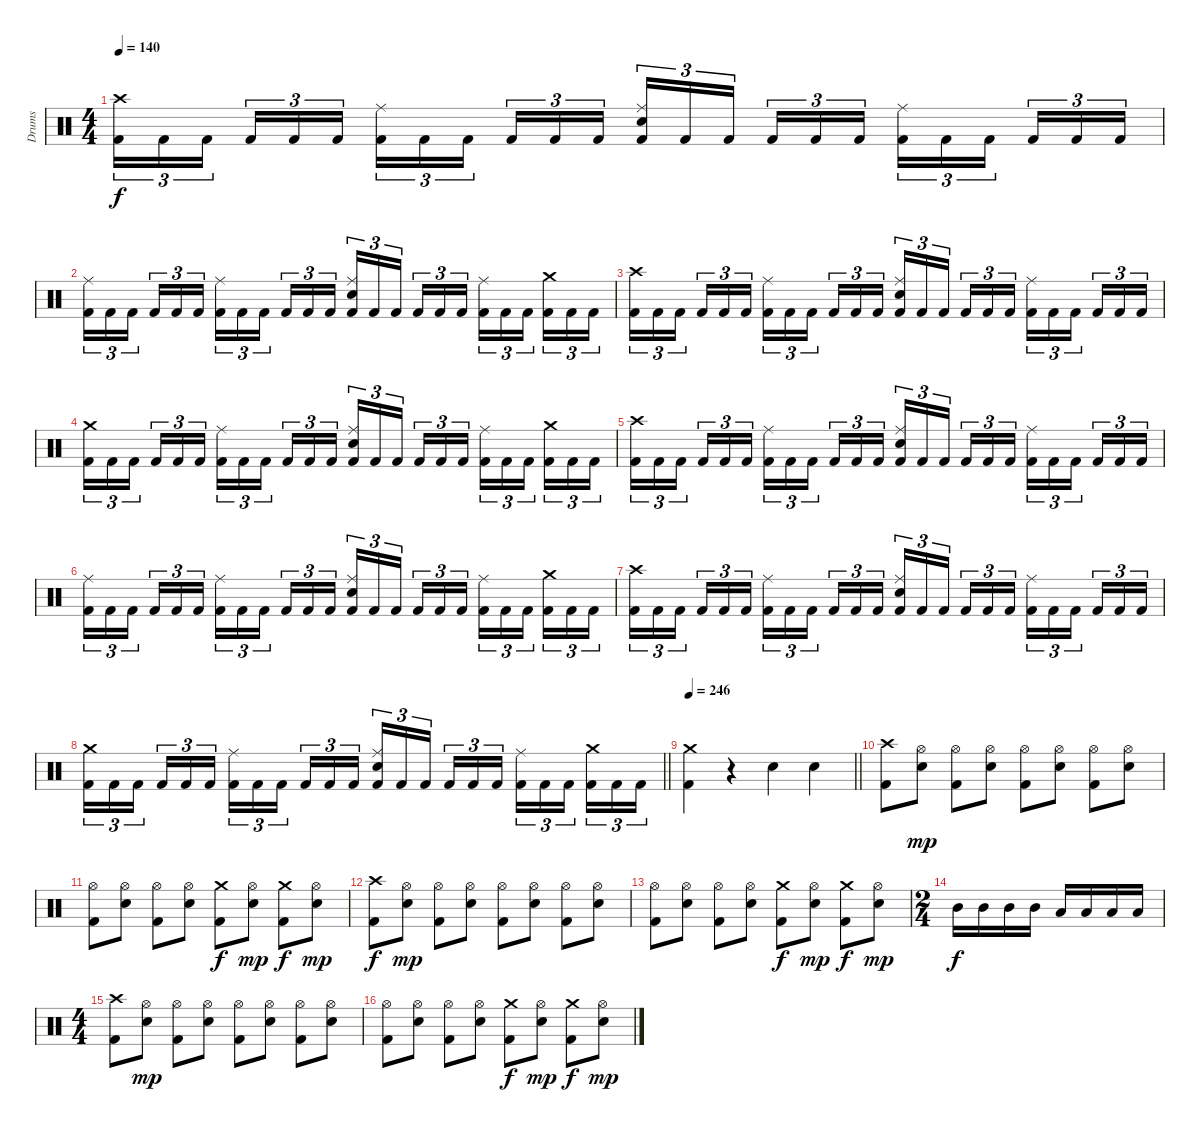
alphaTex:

\track ("Drums" "Drums") {instrument percussion}
\staff {score}
\articulation defaults
\ts (4 4)
\tempo 140
\clef neutral
\ks c
("Crash high (hit)" "Kick (hit) 2").16{tu (3 2) dy f} "Kick (hit) 2".16{tu (3 2)} "Kick (hit) 2".16{tu (3 2) beam splitsecondary} "Kick (hit) 2".16{tu (3 2)} "Kick (hit) 2".16{tu (3 2)} "Kick (hit) 2".16{tu (3 2)} ("Ride (middle)" "Kick (hit) 2").16{tu (3 2)} "Kick (hit) 2".16{tu (3 2)} "Kick (hit) 2".16{tu (3 2) beam splitsecondary} "Kick (hit) 2".16{tu (3 2)} "Kick (hit) 2".16{tu (3 2)} "Kick (hit) 2".16{tu (3 2)} ("Ride (middle)" "Snare (hit) 2" "Kick (hit) 2").16{tu (3 2)} "Kick (hit) 2".16{tu (3 2)} "Kick (hit) 2".16{tu (3 2) beam splitsecondary} "Kick (hit) 2".16{tu (3 2)} "Kick (hit) 2".16{tu (3 2)} "Kick (hit) 2".16{tu (3 2)} ("Ride (middle)" "Kick (hit) 2").16{tu (3 2)} "Kick (hit) 2".16{tu (3 2)} "Kick (hit) 2".16{tu (3 2) beam splitsecondary} "Kick (hit) 2".16{tu (3 2)} "Kick (hit) 2".16{tu (3 2)} "Kick (hit) 2".16{tu (3 2)} |
("Ride (middle)" "Kick (hit) 2").16{tu (3 2)} "Kick (hit) 2".16{tu (3 2)} "Kick (hit) 2".16{tu (3 2) beam splitsecondary} "Kick (hit) 2".16{tu (3 2)} "Kick (hit) 2".16{tu (3 2)} "Kick (hit) 2".16{tu (3 2)} ("Ride (middle)" "Kick (hit) 2").16{tu (3 2)} "Kick (hit) 2".16{tu (3 2)} "Kick (hit) 2".16{tu (3 2) beam splitsecondary} "Kick (hit) 2".16{tu (3 2)} "Kick (hit) 2".16{tu (3 2)} "Kick (hit) 2".16{tu (3 2)} ("Ride (middle)" "Snare (hit) 2" "Kick (hit) 2").16{tu (3 2)} "Kick (hit) 2".16{tu (3 2)} "Kick (hit) 2".16{tu (3 2) beam splitsecondary} "Kick (hit) 2".16{tu (3 2)} "Kick (hit) 2".16{tu (3 2)} "Kick (hit) 2".16{tu (3 2)} ("Ride (middle)" "Kick (hit) 2").16{tu (3 2)} "Kick (hit) 2".16{tu (3 2)} "Kick (hit) 2".16{tu (3 2) beam splitsecondary} ("Crash medium (hit)" "Kick (hit) 2").16{tu (3 2)} "Kick (hit) 2".16{tu (3 2)} "Kick (hit) 2".16{tu (3 2)} |
("Crash high (hit)" "Kick (hit) 2").16{tu (3 2)} "Kick (hit) 2".16{tu (3 2)} "Kick (hit) 2".16{tu (3 2) beam splitsecondary} "Kick (hit) 2".16{tu (3 2)} "Kick (hit) 2".16{tu (3 2)} "Kick (hit) 2".16{tu (3 2)} ("Ride (middle)" "Kick (hit) 2").16{tu (3 2)} "Kick (hit) 2".16{tu (3 2)} "Kick (hit) 2".16{tu (3 2) beam splitsecondary} "Kick (hit) 2".16{tu (3 2)} "Kick (hit) 2".16{tu (3 2)} "Kick (hit) 2".16{tu (3 2)} ("Ride (middle)" "Snare (hit) 2" "Kick (hit) 2").16{tu (3 2)} "Kick (hit) 2".16{tu (3 2)} "Kick (hit) 2".16{tu (3 2) beam splitsecondary} "Kick (hit) 2".16{tu (3 2)} "Kick (hit) 2".16{tu (3 2)} "Kick (hit) 2".16{tu (3 2)} ("Ride (middle)" "Kick (hit) 2").16{tu (3 2)} "Kick (hit) 2".16{tu (3 2)} "Kick (hit) 2".16{tu (3 2) beam splitsecondary} "Kick (hit) 2".16{tu (3 2)} "Kick (hit) 2".16{tu (3 2)} "Kick (hit) 2".16{tu (3 2)} |
("Crash medium (hit)" "Kick (hit) 2").16{tu (3 2)} "Kick (hit) 2".16{tu (3 2)} "Kick (hit) 2".16{tu (3 2) beam splitsecondary} "Kick (hit) 2".16{tu (3 2)} "Kick (hit) 2".16{tu (3 2)} "Kick (hit) 2".16{tu (3 2)} ("Ride (middle)" "Kick (hit) 2").16{tu (3 2)} "Kick (hit) 2".16{tu (3 2)} "Kick (hit) 2".16{tu (3 2) beam splitsecondary} "Kick (hit) 2".16{tu (3 2)} "Kick (hit) 2".16{tu (3 2)} "Kick (hit) 2".16{tu (3 2)} ("Ride (middle)" "Snare (hit) 2" "Kick (hit) 2").16{tu (3 2)} "Kick (hit) 2".16{tu (3 2)} "Kick (hit) 2".16{tu (3 2) beam splitsecondary} "Kick (hit) 2".16{tu (3 2)} "Kick (hit) 2".16{tu (3 2)} "Kick (hit) 2".16{tu (3 2)} ("Ride (middle)" "Kick (hit) 2").16{tu (3 2)} "Kick (hit) 2".16{tu (3 2)} "Kick (hit) 2".16{tu (3 2) beam splitsecondary} ("Crash medium (hit)" "Kick (hit) 2").16{tu (3 2)} "Kick (hit) 2".16{tu (3 2)} "Kick (hit) 2".16{tu (3 2)} |
("Crash high (hit)" "Kick (hit) 2").16{tu (3 2)} "Kick (hit) 2".16{tu (3 2)} "Kick (hit) 2".16{tu (3 2) beam splitsecondary} "Kick (hit) 2".16{tu (3 2)} "Kick (hit) 2".16{tu (3 2)} "Kick (hit) 2".16{tu (3 2)} ("Ride (middle)" "Kick (hit) 2").16{tu (3 2)} "Kick (hit) 2".16{tu (3 2)} "Kick (hit) 2".16{tu (3 2) beam splitsecondary} "Kick (hit) 2".16{tu (3 2)} "Kick (hit) 2".16{tu (3 2)} "Kick (hit) 2".16{tu (3 2)} ("Ride (middle)" "Snare (hit) 2" "Kick (hit) 2").16{tu (3 2)} "Kick (hit) 2".16{tu (3 2)} "Kick (hit) 2".16{tu (3 2) beam splitsecondary} "Kick (hit) 2".16{tu (3 2)} "Kick (hit) 2".16{tu (3 2)} "Kick (hit) 2".16{tu (3 2)} ("Ride (middle)" "Kick (hit) 2").16{tu (3 2)} "Kick (hit) 2".16{tu (3 2)} "Kick (hit) 2".16{tu (3 2) beam splitsecondary} "Kick (hit) 2".16{tu (3 2)} "Kick (hit) 2".16{tu (3 2)} "Kick (hit) 2".16{tu (3 2)} |
("Ride (middle)" "Kick (hit) 2").16{tu (3 2)} "Kick (hit) 2".16{tu (3 2)} "Kick (hit) 2".16{tu (3 2) beam splitsecondary} "Kick (hit) 2".16{tu (3 2)} "Kick (hit) 2".16{tu (3 2)} "Kick (hit) 2".16{tu (3 2)} ("Ride (middle)" "Kick (hit) 2").16{tu (3 2)} "Kick (hit) 2".16{tu (3 2)} "Kick (hit) 2".16{tu (3 2) beam splitsecondary} "Kick (hit) 2".16{tu (3 2)} "Kick (hit) 2".16{tu (3 2)} "Kick (hit) 2".16{tu (3 2)} ("Ride (middle)" "Snare (hit) 2" "Kick (hit) 2").16{tu (3 2)} "Kick (hit) 2".16{tu (3 2)} "Kick (hit) 2".16{tu (3 2) beam splitsecondary} "Kick (hit) 2".16{tu (3 2)} "Kick (hit) 2".16{tu (3 2)} "Kick (hit) 2".16{tu (3 2)} ("Ride (middle)" "Kick (hit) 2").16{tu (3 2)} "Kick (hit) 2".16{tu (3 2)} "Kick (hit) 2".16{tu (3 2) beam splitsecondary} ("Crash medium (hit)" "Kick (hit) 2").16{tu (3 2)} "Kick (hit) 2".16{tu (3 2)} "Kick (hit) 2".16{tu (3 2)} |
("Crash high (hit)" "Kick (hit) 2").16{tu (3 2)} "Kick (hit) 2".16{tu (3 2)} "Kick (hit) 2".16{tu (3 2) beam splitsecondary} "Kick (hit) 2".16{tu (3 2)} "Kick (hit) 2".16{tu (3 2)} "Kick (hit) 2".16{tu (3 2)} ("Ride (middle)" "Kick (hit) 2").16{tu (3 2)} "Kick (hit) 2".16{tu (3 2)} "Kick (hit) 2".16{tu (3 2) beam splitsecondary} "Kick (hit) 2".16{tu (3 2)} "Kick (hit) 2".16{tu (3 2)} "Kick (hit) 2".16{tu (3 2)} ("Ride (middle)" "Snare (hit) 2" "Kick (hit) 2").16{tu (3 2)} "Kick (hit) 2".16{tu (3 2)} "Kick (hit) 2".16{tu (3 2) beam splitsecondary} "Kick (hit) 2".16{tu (3 2)} "Kick (hit) 2".16{tu (3 2)} "Kick (hit) 2".16{tu (3 2)} ("Ride (middle)" "Kick (hit) 2").16{tu (3 2)} "Kick (hit) 2".16{tu (3 2)} "Kick (hit) 2".16{tu (3 2) beam splitsecondary} "Kick (hit) 2".16{tu (3 2)} "Kick (hit) 2".16{tu (3 2)} "Kick (hit) 2".16{tu (3 2)} |
\barLineRight lightlight
("Crash medium (hit)" "Kick (hit) 2").16{tu (3 2)} "Kick (hit) 2".16{tu (3 2)} "Kick (hit) 2".16{tu (3 2) beam splitsecondary} "Kick (hit) 2".16{tu (3 2)} "Kick (hit) 2".16{tu (3 2)} "Kick (hit) 2".16{tu (3 2)} ("Ride (middle)" "Kick (hit) 2").16{tu (3 2)} "Kick (hit) 2".16{tu (3 2)} "Kick (hit) 2".16{tu (3 2) beam splitsecondary} "Kick (hit) 2".16{tu (3 2)} "Kick (hit) 2".16{tu (3 2)} "Kick (hit) 2".16{tu (3 2)} ("Ride (middle)" "Snare (hit) 2" "Kick (hit) 2").16{tu (3 2)} "Kick (hit) 2".16{tu (3 2)} "Kick (hit) 2".16{tu (3 2) beam splitsecondary} "Kick (hit) 2".16{tu (3 2)} "Kick (hit) 2".16{tu (3 2)} "Kick (hit) 2".16{tu (3 2)} ("Ride (middle)" "Kick (hit) 2").16{tu (3 2)} "Kick (hit) 2".16{tu (3 2)} "Kick (hit) 2".16{tu (3 2) beam splitsecondary} ("Crash medium (hit)" "Kick (hit) 2").16{tu (3 2)} "Kick (hit) 2".16{tu (3 2)} "Kick (hit) 2".16{tu (3 2)} |
\section ("" "")
\tempo 246
\barLineRight lightlight
("Crash medium (hit)" "Kick (hit) 2").4 r.4 "Snare (hit) 2".4 "Snare (hit) 2".4 |
\section ("" "")
("Crash high (hit)" "Kick (hit) 2").8 ("Hi-Hat (open)" "Snare (hit) 2").8{dy mp} ("Hi-Hat (open)" "Kick (hit) 2").8 ("Hi-Hat (open)" "Snare (hit) 2").8 ("Hi-Hat (open)" "Kick (hit) 2").8 ("Hi-Hat (open)" "Snare (hit) 2").8 ("Hi-Hat (open)" "Kick (hit) 2").8 ("Hi-Hat (open)" "Snare (hit) 2").8 |
("Hi-Hat (open)" "Kick (hit) 2").8 ("Hi-Hat (open)" "Snare (hit) 2").8 ("Hi-Hat (open)" "Kick (hit) 2").8 ("Hi-Hat (open)" "Snare (hit) 2").8 ("Crash medium (hit)" "Kick (hit) 2").8{dy f} ("Hi-Hat (open)" "Snare (hit) 2").8{dy mp} ("Crash medium (hit)" "Kick (hit) 2").8{dy f} ("Hi-Hat (open)" "Snare (hit) 2").8{dy mp} |
("Crash high (hit)" "Kick (hit) 2").8{dy f} ("Hi-Hat (open)" "Snare (hit) 2").8{dy mp} ("Hi-Hat (open)" "Kick (hit) 2").8 ("Hi-Hat (open)" "Snare (hit) 2").8 ("Hi-Hat (open)" "Kick (hit) 2").8 ("Hi-Hat (open)" "Snare (hit) 2").8 ("Hi-Hat (open)" "Kick (hit) 2").8 ("Hi-Hat (open)" "Snare (hit) 2").8 |
("Hi-Hat (open)" "Kick (hit) 2").8 ("Hi-Hat (open)" "Snare (hit) 2").8 ("Hi-Hat (open)" "Kick (hit) 2").8 ("Hi-Hat (open)" "Snare (hit) 2").8 ("Crash medium (hit)" "Kick (hit) 2").8{dy f} ("Hi-Hat (open)" "Snare (hit) 2").8{dy mp} ("Crash medium (hit)" "Kick (hit) 2").8{dy f} ("Hi-Hat (open)" "Snare (hit) 2").8{dy mp} |
\ts (2 4)
"Mid Tom (hit)".16{dy f} "Mid Tom (hit)".16 "Mid Tom (hit)".16 "Mid Tom (hit)".16 "Low Tom (hit)".16 "Low Tom (hit)".16 "Low Tom (hit)".16 "Low Tom (hit)".16 |
\ts (4 4)
("Crash high (hit)" "Kick (hit) 2").8 ("Hi-Hat (open)" "Snare (hit) 2").8{dy mp} ("Hi-Hat (open)" "Kick (hit) 2").8 ("Hi-Hat (open)" "Snare (hit) 2").8 ("Hi-Hat (open)" "Kick (hit) 2").8 ("Hi-Hat (open)" "Snare (hit) 2").8 ("Hi-Hat (open)" "Kick (hit) 2").8 ("Hi-Hat (open)" "Snare (hit) 2").8 |
("Hi-Hat (open)" "Kick (hit) 2").8 ("Hi-Hat (open)" "Snare (hit) 2").8 ("Hi-Hat (open)" "Kick (hit) 2").8 ("Hi-Hat (open)" "Snare (hit) 2").8 ("Crash medium (hit)" "Kick (hit) 2").8{dy f} ("Hi-Hat (open)" "Snare (hit) 2").8{dy mp} ("Crash medium (hit)" "Kick (hit) 2").8{dy f} ("Hi-Hat (open)" "Snare (hit) 2").8{dy mp}
